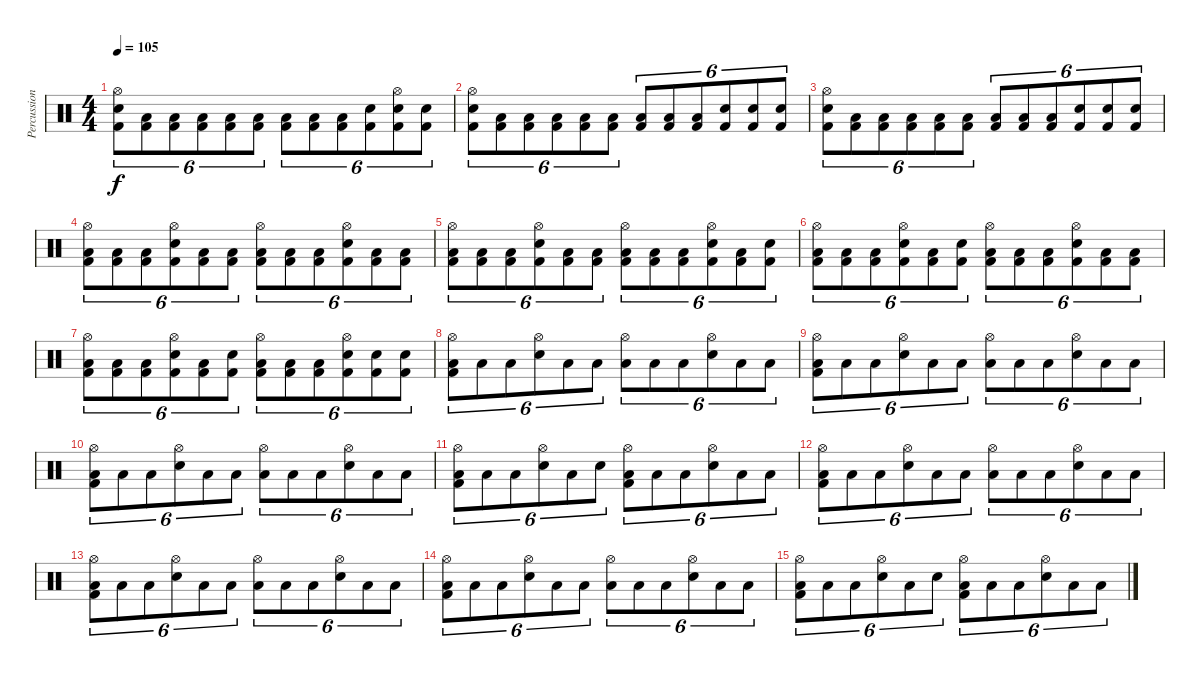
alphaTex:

\track ("Percussion" "Percussion") {instrument percussion}
\staff {score}
\articulation defaults
\ts (4 4)
\tempo 105
\clef neutral
\ks c
("Hi-Hat (open)" "Electric Snare (hit)" "Kick (hit) 2").8{tu (6 4) dy f} ("Low Floor Tom (hit)" "Kick (hit) 2").8{tu (6 4)} ("Low Floor Tom (hit)" "Kick (hit) 2").8{tu (6 4)} ("Low Floor Tom (hit)" "Kick (hit) 2").8{tu (6 4)} ("Low Floor Tom (hit)" "Kick (hit) 2").8{tu (6 4)} ("Low Floor Tom (hit)" "Kick (hit) 2").8{tu (6 4)} ("Low Floor Tom (hit)" "Kick (hit) 2").8{tu (6 4)} ("Low Floor Tom (hit)" "Kick (hit) 2").8{tu (6 4)} ("Low Floor Tom (hit)" "Kick (hit) 2").8{tu (6 4)} ("Electric Snare (hit)" "Kick (hit) 2").8{tu (6 4)} ("Hi-Hat (open)" "Electric Snare (hit)" "Kick (hit) 2").8{tu (6 4)} ("Electric Snare (hit)" "Kick (hit) 2").8{tu (6 4)} |
("Hi-Hat (open)" "Electric Snare (hit)" "Kick (hit) 2").8{tu (6 4)} ("Low Floor Tom (hit)" "Kick (hit) 2").8{tu (6 4)} ("Low Floor Tom (hit)" "Kick (hit) 2").8{tu (6 4)} ("Low Floor Tom (hit)" "Kick (hit) 2").8{tu (6 4)} ("Low Floor Tom (hit)" "Kick (hit) 2").8{tu (6 4)} ("Low Floor Tom (hit)" "Kick (hit) 2").8{tu (6 4)} ("Low Floor Tom (hit)" "Kick (hit) 2").8{tu (6 4)} ("Low Floor Tom (hit)" "Kick (hit) 2").8{tu (6 4)} ("Low Floor Tom (hit)" "Kick (hit) 2").8{tu (6 4)} ("Electric Snare (hit)" "Kick (hit) 2").8{tu (6 4)} ("Electric Snare (hit)" "Kick (hit) 2").8{tu (6 4)} ("Electric Snare (hit)" "Kick (hit) 2").8{tu (6 4)} |
("Hi-Hat (open)" "Electric Snare (hit)" "Kick (hit) 2").8{tu (6 4)} ("Low Floor Tom (hit)" "Kick (hit) 2").8{tu (6 4)} ("Low Floor Tom (hit)" "Kick (hit) 2").8{tu (6 4)} ("Low Floor Tom (hit)" "Kick (hit) 2").8{tu (6 4)} ("Low Floor Tom (hit)" "Kick (hit) 2").8{tu (6 4)} ("Low Floor Tom (hit)" "Kick (hit) 2").8{tu (6 4)} ("Low Floor Tom (hit)" "Kick (hit) 2").8{tu (6 4)} ("Low Floor Tom (hit)" "Kick (hit) 2").8{tu (6 4)} ("Low Floor Tom (hit)" "Kick (hit) 2").8{tu (6 4)} ("Electric Snare (hit)" "Kick (hit) 2").8{tu (6 4)} ("Electric Snare (hit)" "Kick (hit) 2").8{tu (6 4)} ("Electric Snare (hit)" "Kick (hit) 2").8{tu (6 4)} |
("Hi-Hat (open)" "Low Floor Tom (hit)" "Kick (hit) 2").8{tu (6 4)} ("Low Floor Tom (hit)" "Kick (hit) 2").8{tu (6 4)} ("Low Floor Tom (hit)" "Kick (hit) 2").8{tu (6 4)} ("Hi-Hat (open)" "Electric Snare (hit)" "Kick (hit) 2").8{tu (6 4)} ("Low Floor Tom (hit)" "Kick (hit) 2").8{tu (6 4)} ("Low Floor Tom (hit)" "Kick (hit) 2").8{tu (6 4)} ("Hi-Hat (open)" "Low Floor Tom (hit)" "Kick (hit) 2").8{tu (6 4)} ("Low Floor Tom (hit)" "Kick (hit) 2").8{tu (6 4)} ("Low Floor Tom (hit)" "Kick (hit) 2").8{tu (6 4)} ("Hi-Hat (open)" "Electric Snare (hit)" "Kick (hit) 2").8{tu (6 4)} ("Low Floor Tom (hit)" "Kick (hit) 2").8{tu (6 4)} ("Low Floor Tom (hit)" "Kick (hit) 2").8{tu (6 4)} |
("Hi-Hat (open)" "Low Floor Tom (hit)" "Kick (hit) 2").8{tu (6 4)} ("Low Floor Tom (hit)" "Kick (hit) 2").8{tu (6 4)} ("Low Floor Tom (hit)" "Kick (hit) 2").8{tu (6 4)} ("Hi-Hat (open)" "Electric Snare (hit)" "Kick (hit) 2").8{tu (6 4)} ("Low Floor Tom (hit)" "Kick (hit) 2").8{tu (6 4)} ("Low Floor Tom (hit)" "Kick (hit) 2").8{tu (6 4)} ("Hi-Hat (open)" "Low Floor Tom (hit)" "Kick (hit) 2").8{tu (6 4)} ("Low Floor Tom (hit)" "Kick (hit) 2").8{tu (6 4)} ("Low Floor Tom (hit)" "Kick (hit) 2").8{tu (6 4)} ("Hi-Hat (open)" "Electric Snare (hit)" "Kick (hit) 2").8{tu (6 4)} ("Low Floor Tom (hit)" "Kick (hit) 2").8{tu (6 4)} ("Electric Snare (hit)" "Kick (hit) 2").8{tu (6 4)} |
("Hi-Hat (open)" "Low Floor Tom (hit)" "Kick (hit) 2").8{tu (6 4)} ("Low Floor Tom (hit)" "Kick (hit) 2").8{tu (6 4)} ("Low Floor Tom (hit)" "Kick (hit) 2").8{tu (6 4)} ("Hi-Hat (open)" "Electric Snare (hit)" "Kick (hit) 2").8{tu (6 4)} ("Low Floor Tom (hit)" "Kick (hit) 2").8{tu (6 4)} ("Electric Snare (hit)" "Kick (hit) 2").8{tu (6 4)} ("Hi-Hat (open)" "Low Floor Tom (hit)" "Kick (hit) 2").8{tu (6 4)} ("Low Floor Tom (hit)" "Kick (hit) 2").8{tu (6 4)} ("Low Floor Tom (hit)" "Kick (hit) 2").8{tu (6 4)} ("Hi-Hat (open)" "Electric Snare (hit)" "Kick (hit) 2").8{tu (6 4)} ("Low Floor Tom (hit)" "Kick (hit) 2").8{tu (6 4)} ("Low Floor Tom (hit)" "Kick (hit) 2").8{tu (6 4)} |
("Hi-Hat (open)" "Low Floor Tom (hit)" "Kick (hit) 2").8{tu (6 4)} ("Low Floor Tom (hit)" "Kick (hit) 2").8{tu (6 4)} ("Low Floor Tom (hit)" "Kick (hit) 2").8{tu (6 4)} ("Hi-Hat (open)" "Electric Snare (hit)" "Kick (hit) 2").8{tu (6 4)} ("Low Floor Tom (hit)" "Kick (hit) 2").8{tu (6 4)} ("Electric Snare (hit)" "Kick (hit) 2").8{tu (6 4)} ("Hi-Hat (open)" "Low Floor Tom (hit)" "Kick (hit) 2").8{tu (6 4)} ("Low Floor Tom (hit)" "Kick (hit) 2").8{tu (6 4)} ("Low Floor Tom (hit)" "Kick (hit) 2").8{tu (6 4)} ("Hi-Hat (open)" "Electric Snare (hit)" "Kick (hit) 2").8{tu (6 4)} ("Electric Snare (hit)" "Kick (hit) 2").8{tu (6 4)} ("Electric Snare (hit)" "Kick (hit) 2").8{tu (6 4)} |
("Hi-Hat (open)" "Low Floor Tom (hit)" "Kick (hit) 2").8{tu (6 4)} "Low Floor Tom (hit)".8{tu (6 4)} "Low Floor Tom (hit)".8{tu (6 4)} ("Hi-Hat (open)" "Electric Snare (hit)").8{tu (6 4)} "Low Floor Tom (hit)".8{tu (6 4)} "Low Floor Tom (hit)".8{tu (6 4)} ("Hi-Hat (open)" "Low Floor Tom (hit)").8{tu (6 4)} "Low Floor Tom (hit)".8{tu (6 4)} "Low Floor Tom (hit)".8{tu (6 4)} ("Hi-Hat (open)" "Electric Snare (hit)").8{tu (6 4)} "Low Floor Tom (hit)".8{tu (6 4)} "Low Floor Tom (hit)".8{tu (6 4)} |
("Hi-Hat (open)" "Low Floor Tom (hit)" "Kick (hit) 2").8{tu (6 4)} "Low Floor Tom (hit)".8{tu (6 4)} "Low Floor Tom (hit)".8{tu (6 4)} ("Hi-Hat (open)" "Electric Snare (hit)").8{tu (6 4)} "Low Floor Tom (hit)".8{tu (6 4)} "Low Floor Tom (hit)".8{tu (6 4)} ("Hi-Hat (open)" "Low Floor Tom (hit)").8{tu (6 4)} "Low Floor Tom (hit)".8{tu (6 4)} "Low Floor Tom (hit)".8{tu (6 4)} ("Hi-Hat (open)" "Electric Snare (hit)").8{tu (6 4)} "Low Floor Tom (hit)".8{tu (6 4)} "Low Floor Tom (hit)".8{tu (6 4)} |
("Hi-Hat (open)" "Low Floor Tom (hit)" "Kick (hit) 2").8{tu (6 4)} "Low Floor Tom (hit)".8{tu (6 4)} "Low Floor Tom (hit)".8{tu (6 4)} ("Hi-Hat (open)" "Electric Snare (hit)").8{tu (6 4)} "Low Floor Tom (hit)".8{tu (6 4)} "Low Floor Tom (hit)".8{tu (6 4)} ("Hi-Hat (open)" "Low Floor Tom (hit)").8{tu (6 4)} "Low Floor Tom (hit)".8{tu (6 4)} "Low Floor Tom (hit)".8{tu (6 4)} ("Hi-Hat (open)" "Electric Snare (hit)").8{tu (6 4)} "Low Floor Tom (hit)".8{tu (6 4)} "Low Floor Tom (hit)".8{tu (6 4)} |
("Hi-Hat (open)" "Low Floor Tom (hit)" "Kick (hit) 2").8{tu (6 4)} "Low Floor Tom (hit)".8{tu (6 4)} "Low Floor Tom (hit)".8{tu (6 4)} ("Hi-Hat (open)" "Electric Snare (hit)").8{tu (6 4)} "Low Floor Tom (hit)".8{tu (6 4)} "Electric Snare (hit)".8{tu (6 4)} ("Hi-Hat (open)" "Low Floor Tom (hit)" "Kick (hit) 2").8{tu (6 4)} "Low Floor Tom (hit)".8{tu (6 4)} "Low Floor Tom (hit)".8{tu (6 4)} ("Hi-Hat (open)" "Electric Snare (hit)").8{tu (6 4)} "Low Floor Tom (hit)".8{tu (6 4)} "Low Floor Tom (hit)".8{tu (6 4)} |
("Hi-Hat (open)" "Low Floor Tom (hit)" "Kick (hit) 2").8{tu (6 4)} "Low Floor Tom (hit)".8{tu (6 4)} "Low Floor Tom (hit)".8{tu (6 4)} ("Hi-Hat (open)" "Electric Snare (hit)").8{tu (6 4)} "Low Floor Tom (hit)".8{tu (6 4)} "Low Floor Tom (hit)".8{tu (6 4)} ("Hi-Hat (open)" "Low Floor Tom (hit)").8{tu (6 4)} "Low Floor Tom (hit)".8{tu (6 4)} "Low Floor Tom (hit)".8{tu (6 4)} ("Hi-Hat (open)" "Electric Snare (hit)").8{tu (6 4)} "Low Floor Tom (hit)".8{tu (6 4)} "Low Floor Tom (hit)".8{tu (6 4)} |
("Hi-Hat (open)" "Low Floor Tom (hit)" "Kick (hit) 2").8{tu (6 4)} "Low Floor Tom (hit)".8{tu (6 4)} "Low Floor Tom (hit)".8{tu (6 4)} ("Hi-Hat (open)" "Electric Snare (hit)").8{tu (6 4)} "Low Floor Tom (hit)".8{tu (6 4)} "Low Floor Tom (hit)".8{tu (6 4)} ("Hi-Hat (open)" "Low Floor Tom (hit)").8{tu (6 4)} "Low Floor Tom (hit)".8{tu (6 4)} "Low Floor Tom (hit)".8{tu (6 4)} ("Hi-Hat (open)" "Electric Snare (hit)").8{tu (6 4)} "Low Floor Tom (hit)".8{tu (6 4)} "Low Floor Tom (hit)".8{tu (6 4)} |
("Hi-Hat (open)" "Low Floor Tom (hit)" "Kick (hit) 2").8{tu (6 4)} "Low Floor Tom (hit)".8{tu (6 4)} "Low Floor Tom (hit)".8{tu (6 4)} ("Hi-Hat (open)" "Electric Snare (hit)").8{tu (6 4)} "Low Floor Tom (hit)".8{tu (6 4)} "Low Floor Tom (hit)".8{tu (6 4)} ("Hi-Hat (open)" "Low Floor Tom (hit)").8{tu (6 4)} "Low Floor Tom (hit)".8{tu (6 4)} "Low Floor Tom (hit)".8{tu (6 4)} ("Hi-Hat (open)" "Electric Snare (hit)").8{tu (6 4)} "Low Floor Tom (hit)".8{tu (6 4)} "Low Floor Tom (hit)".8{tu (6 4)} |
("Hi-Hat (open)" "Low Floor Tom (hit)" "Kick (hit) 2").8{tu (6 4)} "Low Floor Tom (hit)".8{tu (6 4)} "Low Floor Tom (hit)".8{tu (6 4)} ("Hi-Hat (open)" "Electric Snare (hit)").8{tu (6 4)} "Low Floor Tom (hit)".8{tu (6 4)} "Electric Snare (hit)".8{tu (6 4)} ("Hi-Hat (open)" "Low Floor Tom (hit)" "Kick (hit) 2").8{tu (6 4)} "Low Floor Tom (hit)".8{tu (6 4)} "Low Floor Tom (hit)".8{tu (6 4)} ("Hi-Hat (open)" "Electric Snare (hit)").8{tu (6 4)} "Low Floor Tom (hit)".8{tu (6 4)} "Low Floor Tom (hit)".8{tu (6 4)}
